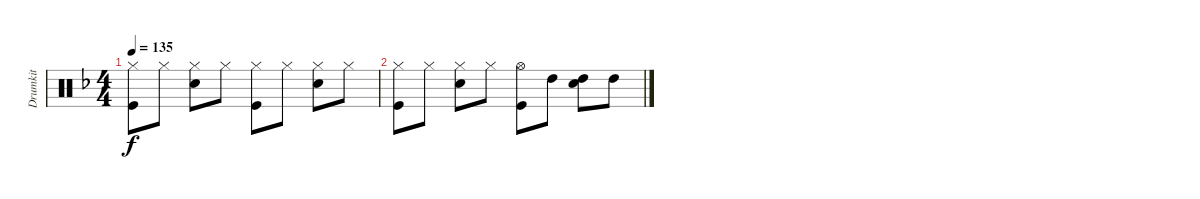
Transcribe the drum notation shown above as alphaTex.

\track ("Drumkit" "Drumkit") {instrument percussion}
\staff {score}
\articulation defaults
\ts (4 4)
\tempo 135
\clef neutral
\ks f
("Hi-Hat (closed)" "Kick (hit)").8{dy f} "Hi-Hat (closed)".8 ("Hi-Hat (closed)" "Snare (hit) 2").8 "Hi-Hat (closed)".8 ("Hi-Hat (closed)" "Kick (hit)").8 "Hi-Hat (closed)".8 ("Hi-Hat (closed)" "Snare (hit) 2").8 "Hi-Hat (closed)".8 |
("Hi-Hat (closed)" "Kick (hit)").8 "Hi-Hat (closed)".8 ("Hi-Hat (closed)" "Snare (hit) 2").8 "Hi-Hat (closed)".8 ("Hi-Hat (open)" "Kick (hit)").8 "High Tom (hit)".8 ("High Tom (hit)" "Snare (hit) 2").8 "High Tom (hit)".8
